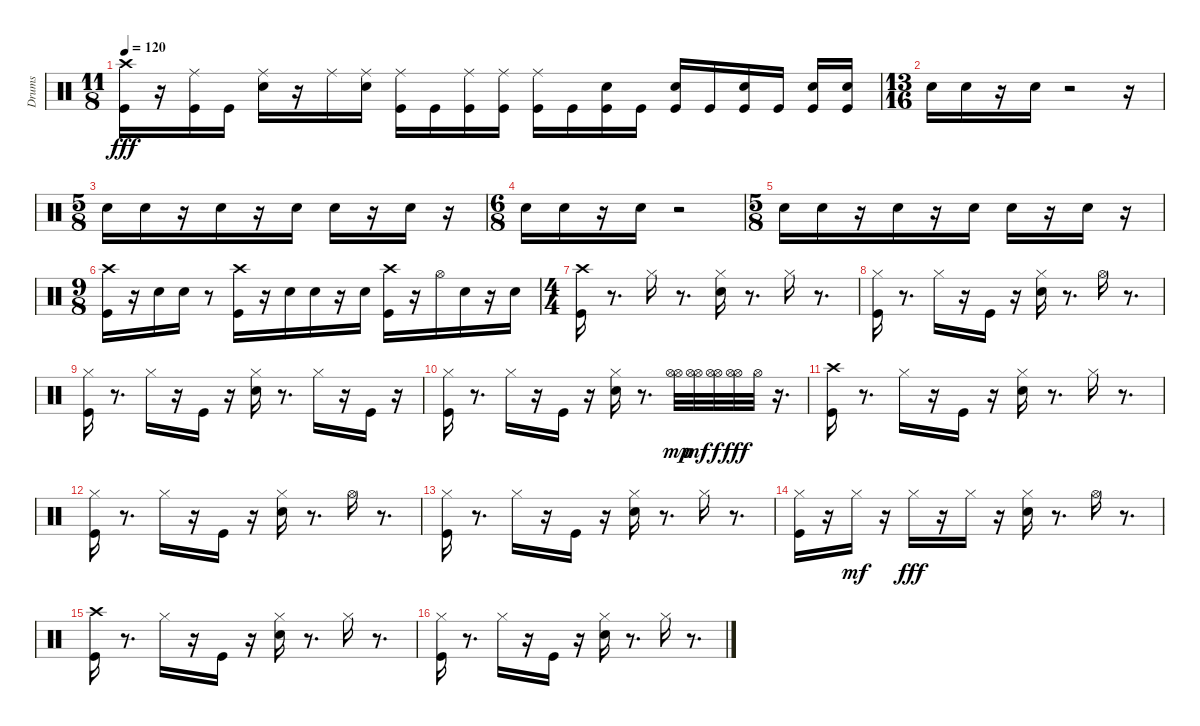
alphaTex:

\track ("Drums" "Drums") {instrument percussion}
\staff {score}
\articulation defaults
\ts (11 8)
\tempo 120
\clef neutral
\ks c
("Crash high (hit)" "Kick (hit)").16{dy fff} r.16 ("Ride (middle)" "Kick (hit)").16 "Kick (hit)".16 ("Ride (middle)" "Snare (hit) 2").16 r.16 "Ride (middle)".16 ("Ride (middle)" "Snare (hit) 2").16 ("Ride (middle)" "Kick (hit)").16 "Kick (hit)".16 ("Ride (middle)" "Kick (hit)").16 ("Ride (middle)" "Kick (hit)").16 ("Ride (middle)" "Kick (hit)").16 "Kick (hit)".16 ("Snare (hit) 2" "Kick (hit)").16 "Kick (hit)".16 ("Snare (hit) 2" "Kick (hit)").16 "Kick (hit)".16 ("Snare (hit) 2" "Kick (hit)").16 "Kick (hit)".16 ("Snare (hit) 2" "Kick (hit)").16 ("Snare (hit) 2" "Kick (hit)").16 |
\ts (13 16)
"Snare (hit) 2".16{volume 13} "Snare (hit) 2".16 r.16 "Snare (hit) 2".16 r.2 r.16 |
\ts (5 8)
"Snare (hit) 2".16 "Snare (hit) 2".16 r.16 "Snare (hit) 2".16 r.16 "Snare (hit) 2".16 "Snare (hit) 2".16 r.16 "Snare (hit) 2".16 r.16 |
\ts (6 8)
"Snare (hit) 2".16 "Snare (hit) 2".16 r.16 "Snare (hit) 2".16 r.2 |
\ts (5 8)
"Snare (hit) 2".16 "Snare (hit) 2".16 r.16 "Snare (hit) 2".16 r.16 "Snare (hit) 2".16 "Snare (hit) 2".16 r.16 "Snare (hit) 2".16 r.16 |
\ts (9 8)
("Crash high (hit)" "Kick (hit)").16{volume 13} r.16 "Snare (hit) 2".16{volume 13} "Snare (hit) 2".16{volume 13} r.8 ("Crash high (hit)" "Kick (hit)").16{volume 12} r.16 "Snare (hit) 2".16{volume 12} "Snare (hit) 2".16{volume 12} r.16 "Snare (hit) 2".16{volume 12} ("Crash high (hit)" "Kick (hit)").16{volume 11} r.16 "Hi-Hat (open)".16{volume 11} "Snare (hit) 2".16{volume 11} r.16 "Snare (hit) 2".16{volume 11} |
\ts (4 4)
("Crash high (hit)" "Kick (hit)").16 r.8{d} "Hi-Hat (closed)".16 r.8{d} ("Snare (hit) 2" "Hi-Hat (closed)").16 r.8{d} "Hi-Hat (closed)".16 r.8{d} |
("Hi-Hat (closed)" "Kick (hit)").16 r.8{d} "Hi-Hat (closed)".16 r.16 "Kick (hit)".16 r.16 ("Hi-Hat (closed)" "Snare (hit) 2").16 r.8{d} "Hi-Hat (open)".16 r.8{d} |
("Hi-Hat (closed)" "Kick (hit)").16 r.8{d} "Hi-Hat (closed)".16 r.16 "Kick (hit)".16 r.16 ("Hi-Hat (closed)" "Snare (hit) 2").16 r.8{d} "Hi-Hat (closed)".16 r.16 "Kick (hit)".16 r.16 |
("Kick (hit)" "Hi-Hat (closed)").16 r.8{d} "Hi-Hat (closed)".16 r.16 "Kick (hit)".16 r.16 ("Snare (hit) 2" "Hi-Hat (closed)").16 r.8{d} ("Hi-Hat (open)" "Hi-Hat (open)").32{dy mp} ("Hi-Hat (open)" "Hi-Hat (open)").32{dy mf} ("Hi-Hat (open)" "Hi-Hat (open)").32{dy f} ("Hi-Hat (open)" "Hi-Hat (open)").32{dy fff} "Hi-Hat (open)".32 r.16{d} |
("Kick (hit)" "Crash high (hit)").16 r.8{d} "Hi-Hat (closed)".16 r.16 "Kick (hit)".16 r.16 ("Hi-Hat (closed)" "Snare (hit) 2").16 r.8{d} "Hi-Hat (closed)".16 r.8{d} |
("Kick (hit)" "Hi-Hat (closed)").16 r.8{d} "Hi-Hat (closed)".16 r.16 "Kick (hit)".16 r.16 ("Snare (hit) 2" "Hi-Hat (closed)").16 r.8{d} "Hi-Hat (open)".16 r.8{d} |
("Hi-Hat (closed)" "Kick (hit)").16 r.8{d} "Hi-Hat (closed)".16 r.16 "Kick (hit)".16 r.16 ("Hi-Hat (closed)" "Snare (hit) 2").16 r.8{d} "Hi-Hat (closed)".16 r.8{d} |
("Kick (hit)" "Hi-Hat (closed)").16 r.16 "Hi-Hat (closed)".16{dy mf} r.16 "Hi-Hat (closed)".16{dy fff} r.16 "Hi-Hat (closed)".16 r.16 ("Snare (hit) 2" "Hi-Hat (closed)").16 r.8{d} "Hi-Hat (open)".16 r.8{d} |
("Crash high (hit)" "Kick (hit)").16 r.8{d} "Hi-Hat (closed)".16 r.16 "Kick (hit)".16 r.16 ("Snare (hit) 2" "Hi-Hat (closed)").16 r.8{d} "Hi-Hat (closed)".16 r.8{d} |
("Kick (hit)" "Hi-Hat (closed)").16 r.8{d} "Hi-Hat (closed)".16 r.16 "Kick (hit)".16 r.16 ("Snare (hit) 2" "Hi-Hat (closed)").16 r.8{d} "Hi-Hat (closed)".16 r.8{d}
